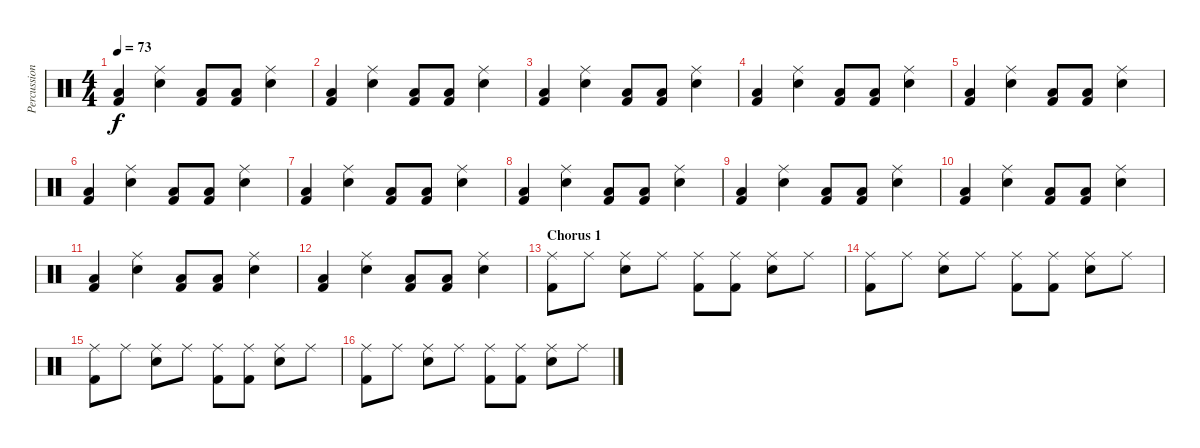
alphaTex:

\track ("Percussion" "Percussion") {instrument percussion}
\staff {score}
\articulation defaults
\ts (4 4)
\tempo 73
\clef neutral
\ks c
("Low Floor Tom (hit)" "Kick (hit) 2").4{dy f} ("Ride (middle)" "Electric Snare (hit)").4 ("Low Floor Tom (hit)" "Kick (hit) 2").8 ("Low Floor Tom (hit)" "Kick (hit) 2").8 ("Ride (middle)" "Electric Snare (hit)").4 |
("Low Floor Tom (hit)" "Kick (hit) 2").4 ("Ride (middle)" "Electric Snare (hit)").4 ("Low Floor Tom (hit)" "Kick (hit) 2").8 ("Low Floor Tom (hit)" "Kick (hit) 2").8 ("Ride (middle)" "Electric Snare (hit)").4 |
("Low Floor Tom (hit)" "Kick (hit) 2").4 ("Ride (middle)" "Electric Snare (hit)").4 ("Low Floor Tom (hit)" "Kick (hit) 2").8 ("Low Floor Tom (hit)" "Kick (hit) 2").8 ("Ride (middle)" "Electric Snare (hit)").4 |
("Low Floor Tom (hit)" "Kick (hit) 2").4 ("Ride (middle)" "Electric Snare (hit)").4 ("Low Floor Tom (hit)" "Kick (hit) 2").8 ("Low Floor Tom (hit)" "Kick (hit) 2").8 ("Ride (middle)" "Electric Snare (hit)").4 |
("Low Floor Tom (hit)" "Kick (hit) 2").4 ("Ride (middle)" "Electric Snare (hit)").4 ("Low Floor Tom (hit)" "Kick (hit) 2").8 ("Low Floor Tom (hit)" "Kick (hit) 2").8 ("Ride (middle)" "Electric Snare (hit)").4 |
("Low Floor Tom (hit)" "Kick (hit) 2").4 ("Ride (middle)" "Electric Snare (hit)").4 ("Low Floor Tom (hit)" "Kick (hit) 2").8 ("Low Floor Tom (hit)" "Kick (hit) 2").8 ("Ride (middle)" "Electric Snare (hit)").4 |
("Low Floor Tom (hit)" "Kick (hit) 2").4 ("Ride (middle)" "Electric Snare (hit)").4 ("Low Floor Tom (hit)" "Kick (hit) 2").8 ("Low Floor Tom (hit)" "Kick (hit) 2").8 ("Ride (middle)" "Electric Snare (hit)").4 |
("Low Floor Tom (hit)" "Kick (hit) 2").4 ("Ride (middle)" "Electric Snare (hit)").4 ("Low Floor Tom (hit)" "Kick (hit) 2").8 ("Low Floor Tom (hit)" "Kick (hit) 2").8 ("Ride (middle)" "Electric Snare (hit)").4 |
("Low Floor Tom (hit)" "Kick (hit) 2").4 ("Ride (middle)" "Electric Snare (hit)").4 ("Low Floor Tom (hit)" "Kick (hit) 2").8 ("Low Floor Tom (hit)" "Kick (hit) 2").8 ("Ride (middle)" "Electric Snare (hit)").4 |
("Low Floor Tom (hit)" "Kick (hit) 2").4 ("Ride (middle)" "Electric Snare (hit)").4 ("Low Floor Tom (hit)" "Kick (hit) 2").8 ("Low Floor Tom (hit)" "Kick (hit) 2").8 ("Ride (middle)" "Electric Snare (hit)").4 |
("Low Floor Tom (hit)" "Kick (hit) 2").4 ("Ride (middle)" "Electric Snare (hit)").4 ("Low Floor Tom (hit)" "Kick (hit) 2").8 ("Low Floor Tom (hit)" "Kick (hit) 2").8 ("Ride (middle)" "Electric Snare (hit)").4 |
("Low Floor Tom (hit)" "Kick (hit) 2").4 ("Ride (middle)" "Electric Snare (hit)").4 ("Low Floor Tom (hit)" "Kick (hit) 2").8 ("Low Floor Tom (hit)" "Kick (hit) 2").8 ("Ride (middle)" "Electric Snare (hit)").4 |
\section ("" "Chorus 1")
("Ride (middle)" "Kick (hit) 2").8 "Ride (middle)".8 ("Ride (middle)" "Electric Snare (hit)").8 "Ride (middle)".8 ("Ride (middle)" "Kick (hit) 2").8 ("Ride (middle)" "Kick (hit) 2").8 ("Ride (middle)" "Electric Snare (hit)").8 "Ride (middle)".8 |
("Ride (middle)" "Kick (hit) 2").8 "Ride (middle)".8 ("Ride (middle)" "Electric Snare (hit)").8 "Ride (middle)".8 ("Ride (middle)" "Kick (hit) 2").8 ("Ride (middle)" "Kick (hit) 2").8 ("Ride (middle)" "Electric Snare (hit)").8 "Ride (middle)".8 |
("Ride (middle)" "Kick (hit) 2").8 "Ride (middle)".8 ("Ride (middle)" "Electric Snare (hit)").8 "Ride (middle)".8 ("Ride (middle)" "Kick (hit) 2").8 ("Ride (middle)" "Kick (hit) 2").8 ("Ride (middle)" "Electric Snare (hit)").8 "Ride (middle)".8 |
("Ride (middle)" "Kick (hit) 2").8 "Ride (middle)".8 ("Ride (middle)" "Electric Snare (hit)").8 "Ride (middle)".8 ("Ride (middle)" "Kick (hit) 2").8 ("Ride (middle)" "Kick (hit) 2").8 ("Ride (middle)" "Electric Snare (hit)").8 "Ride (middle)".8
